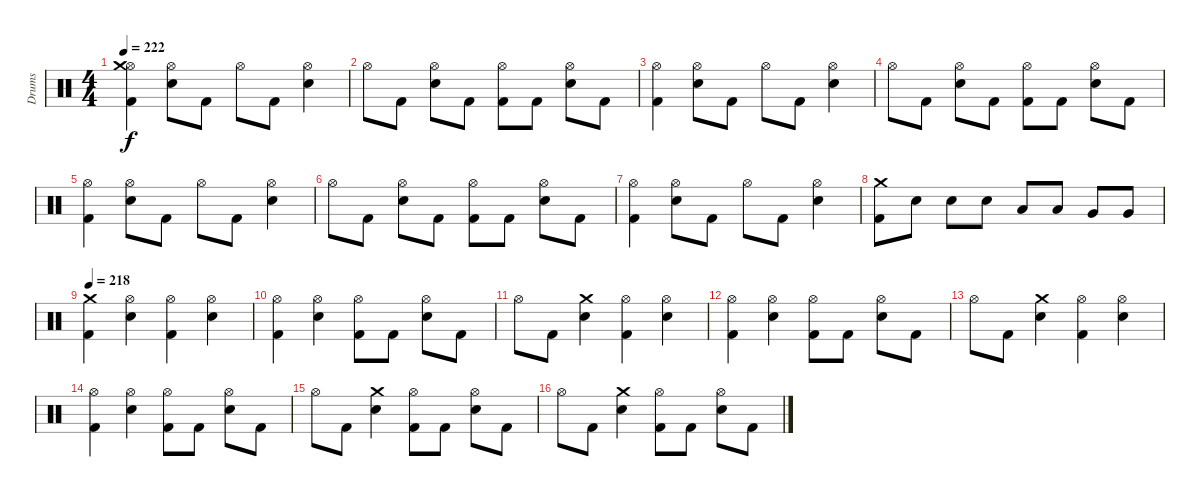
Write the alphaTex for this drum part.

\track ("Drums" "Drums") {instrument percussion}
\staff {score}
\articulation defaults
\ts (4 4)
\tempo 222
\clef neutral
\ks c
("Kick (hit) 2" "Hi-Hat (open)" "Crash medium (hit)").4{dy f} ("Snare (hit) 2" "Hi-Hat (open)").8 "Kick (hit) 2".8 "Hi-Hat (open)".8 "Kick (hit) 2".8 ("Snare (hit) 2" "Hi-Hat (open)").4 |
"Hi-Hat (open)".8 "Kick (hit) 2".8 ("Snare (hit) 2" "Hi-Hat (open)").8 "Kick (hit) 2".8 ("Kick (hit) 2" "Hi-Hat (open)").8 "Kick (hit) 2".8 ("Snare (hit) 2" "Hi-Hat (open)").8 "Kick (hit) 2".8 |
("Kick (hit) 2" "Hi-Hat (open)").4 ("Snare (hit) 2" "Hi-Hat (open)").8 "Kick (hit) 2".8 "Hi-Hat (open)".8 "Kick (hit) 2".8 ("Snare (hit) 2" "Hi-Hat (open)").4 |
"Hi-Hat (open)".8 "Kick (hit) 2".8 ("Snare (hit) 2" "Hi-Hat (open)").8 "Kick (hit) 2".8 ("Kick (hit) 2" "Hi-Hat (open)").8 "Kick (hit) 2".8 ("Snare (hit) 2" "Hi-Hat (open)").8 "Kick (hit) 2".8 |
("Kick (hit) 2" "Hi-Hat (open)").4 ("Snare (hit) 2" "Hi-Hat (open)").8 "Kick (hit) 2".8 "Hi-Hat (open)".8 "Kick (hit) 2".8 ("Snare (hit) 2" "Hi-Hat (open)").4 |
"Hi-Hat (open)".8 "Kick (hit) 2".8 ("Snare (hit) 2" "Hi-Hat (open)").8 "Kick (hit) 2".8 ("Kick (hit) 2" "Hi-Hat (open)").8 "Kick (hit) 2".8 ("Snare (hit) 2" "Hi-Hat (open)").8 "Kick (hit) 2".8 |
("Kick (hit) 2" "Hi-Hat (open)").4 ("Snare (hit) 2" "Hi-Hat (open)").8 "Kick (hit) 2".8 "Hi-Hat (open)".8 "Kick (hit) 2".8 ("Snare (hit) 2" "Hi-Hat (open)").4 |
("Kick (hit) 2" "Crash medium (hit)").8 "Snare (hit) 2".8 "Snare (hit) 2".8 "Snare (hit) 2".8 "Low Tom (hit)".8 "Low Tom (hit)".8 "Very Low Tom (hit)".8 "Very Low Tom (hit)".8 |
\tempo 218
("Kick (hit) 2" "Crash medium (hit)").4 ("Snare (hit) 2" "Hi-Hat (open)").4 ("Kick (hit) 2" "Hi-Hat (open)").4 ("Snare (hit) 2" "Hi-Hat (open)").4 |
("Kick (hit) 2" "Hi-Hat (open)").4 ("Snare (hit) 2" "Hi-Hat (open)").4 ("Kick (hit) 2" "Hi-Hat (open)").8 "Kick (hit) 2".8 ("Snare (hit) 2" "Hi-Hat (open)").8 "Kick (hit) 2".8 |
"Hi-Hat (open)".8 "Kick (hit) 2".8 ("Snare (hit) 2" "Crash medium (hit)").4 ("Kick (hit) 2" "Hi-Hat (open)").4 ("Snare (hit) 2" "Hi-Hat (open)").4 |
("Kick (hit) 2" "Hi-Hat (open)").4 ("Snare (hit) 2" "Hi-Hat (open)").4 ("Kick (hit) 2" "Hi-Hat (open)").8 "Kick (hit) 2".8 ("Snare (hit) 2" "Hi-Hat (open)").8 "Kick (hit) 2".8 |
"Hi-Hat (open)".8 "Kick (hit) 2".8 ("Snare (hit) 2" "Crash medium (hit)").4 ("Kick (hit) 2" "Hi-Hat (open)").4 ("Snare (hit) 2" "Hi-Hat (open)").4 |
("Kick (hit) 2" "Hi-Hat (open)").4 ("Snare (hit) 2" "Hi-Hat (open)").4 ("Kick (hit) 2" "Hi-Hat (open)").8 "Kick (hit) 2".8 ("Snare (hit) 2" "Hi-Hat (open)").8 "Kick (hit) 2".8 |
"Hi-Hat (open)".8 "Kick (hit) 2".8 ("Snare (hit) 2" "Crash medium (hit)").4 ("Kick (hit) 2" "Hi-Hat (open)").8 "Kick (hit) 2".8 ("Snare (hit) 2" "Hi-Hat (open)").8 "Kick (hit) 2".8 |
"Hi-Hat (open)".8 "Kick (hit) 2".8 ("Snare (hit) 2" "Crash medium (hit)").4 ("Kick (hit) 2" "Hi-Hat (open)").8 "Kick (hit) 2".8 ("Snare (hit) 2" "Hi-Hat (open)").8 "Kick (hit) 2".8
